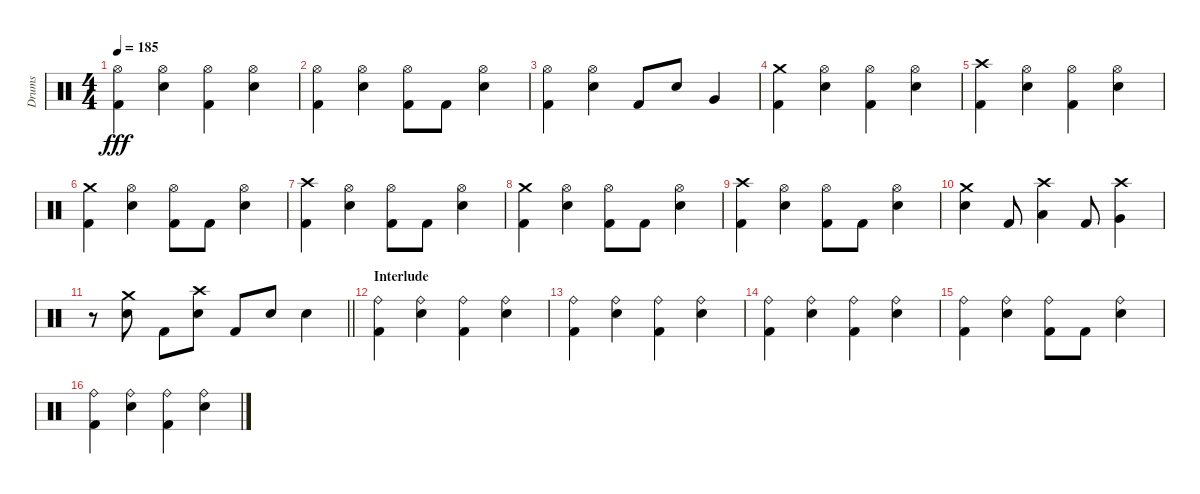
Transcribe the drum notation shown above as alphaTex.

\track ("Drums" "Drums") {instrument percussion}
\staff {score}
\articulation defaults
\ts (4 4)
\tempo 185
\clef neutral
\ks c
("Hi-Hat (open)" "Kick (hit) 2").4{dy fff} ("Hi-Hat (open)" "Electric Snare (hit)").4 ("Hi-Hat (open)" "Kick (hit) 2").4 ("Hi-Hat (open)" "Electric Snare (hit)").4 |
("Hi-Hat (open)" "Kick (hit) 2").4 ("Hi-Hat (open)" "Electric Snare (hit)").4 ("Hi-Hat (open)" "Kick (hit) 2").8 "Kick (hit) 2".8 ("Hi-Hat (open)" "Electric Snare (hit)").4 |
("Hi-Hat (open)" "Kick (hit) 2").4 ("Hi-Hat (open)" "Electric Snare (hit)").4 "Kick (hit) 2".8 "Electric Snare (hit)".8 "Very Low Tom (hit)".4 |
("Crash medium (hit)" "Kick (hit) 2").4 ("Hi-Hat (open)" "Electric Snare (hit)").4 ("Hi-Hat (open)" "Kick (hit) 2").4 ("Hi-Hat (open)" "Electric Snare (hit)").4 |
("Crash high (hit)" "Kick (hit) 2").4 ("Hi-Hat (open)" "Electric Snare (hit)").4 ("Hi-Hat (open)" "Kick (hit) 2").4 ("Hi-Hat (open)" "Electric Snare (hit)").4 |
("Crash medium (hit)" "Kick (hit) 2").4 ("Hi-Hat (open)" "Electric Snare (hit)").4 ("Hi-Hat (open)" "Kick (hit) 2").8 "Kick (hit) 2".8 ("Hi-Hat (open)" "Electric Snare (hit)").4 |
("Crash high (hit)" "Kick (hit) 2").4 ("Hi-Hat (open)" "Electric Snare (hit)").4 ("Hi-Hat (open)" "Kick (hit) 2").8 "Kick (hit) 2".8 ("Hi-Hat (open)" "Electric Snare (hit)").4 |
("Crash medium (hit)" "Kick (hit) 2").4 ("Hi-Hat (open)" "Electric Snare (hit)").4 ("Hi-Hat (open)" "Kick (hit) 2").8 "Kick (hit) 2".8 ("Hi-Hat (open)" "Electric Snare (hit)").4 |
("Crash high (hit)" "Kick (hit) 2").4 ("Hi-Hat (open)" "Electric Snare (hit)").4 ("Hi-Hat (open)" "Kick (hit) 2").8 "Kick (hit) 2".8 ("Hi-Hat (open)" "Electric Snare (hit)").4 |
("Crash medium (hit)" "Electric Snare (hit)").4 "Kick (hit) 2".8 ("Crash high (hit)" "Low Tom (hit)").4 "Kick (hit) 2".8 ("Crash high (hit)" "Very Low Tom (hit)").4 |
\barLineRight lightlight
r.8 ("Crash medium (hit)" "Electric Snare (hit)").8 "Kick (hit) 2".8 ("Crash high (hit)" "Electric Snare (hit)").8 "Kick (hit) 2".8 "Electric Snare (hit)".8 "Electric Snare (hit)".4 |
\section ("" "Interlude")
("Ride (bell)" "Kick (hit) 2").4 ("Ride (bell)" "Electric Snare (hit)").4 ("Ride (bell)" "Kick (hit) 2").4 ("Ride (bell)" "Electric Snare (hit)").4 |
("Ride (bell)" "Kick (hit) 2").4 ("Ride (bell)" "Electric Snare (hit)").4 ("Ride (bell)" "Kick (hit) 2").4 ("Ride (bell)" "Electric Snare (hit)").4 |
("Ride (bell)" "Kick (hit) 2").4 ("Ride (bell)" "Electric Snare (hit)").4 ("Ride (bell)" "Kick (hit) 2").4 ("Ride (bell)" "Electric Snare (hit)").4 |
("Ride (bell)" "Kick (hit) 2").4 ("Ride (bell)" "Electric Snare (hit)").4 ("Ride (bell)" "Kick (hit) 2").8 "Kick (hit) 2".8 ("Ride (bell)" "Electric Snare (hit)").4 |
("Ride (bell)" "Kick (hit) 2").4 ("Ride (bell)" "Electric Snare (hit)").4 ("Ride (bell)" "Kick (hit) 2").4 ("Ride (bell)" "Electric Snare (hit)").4
